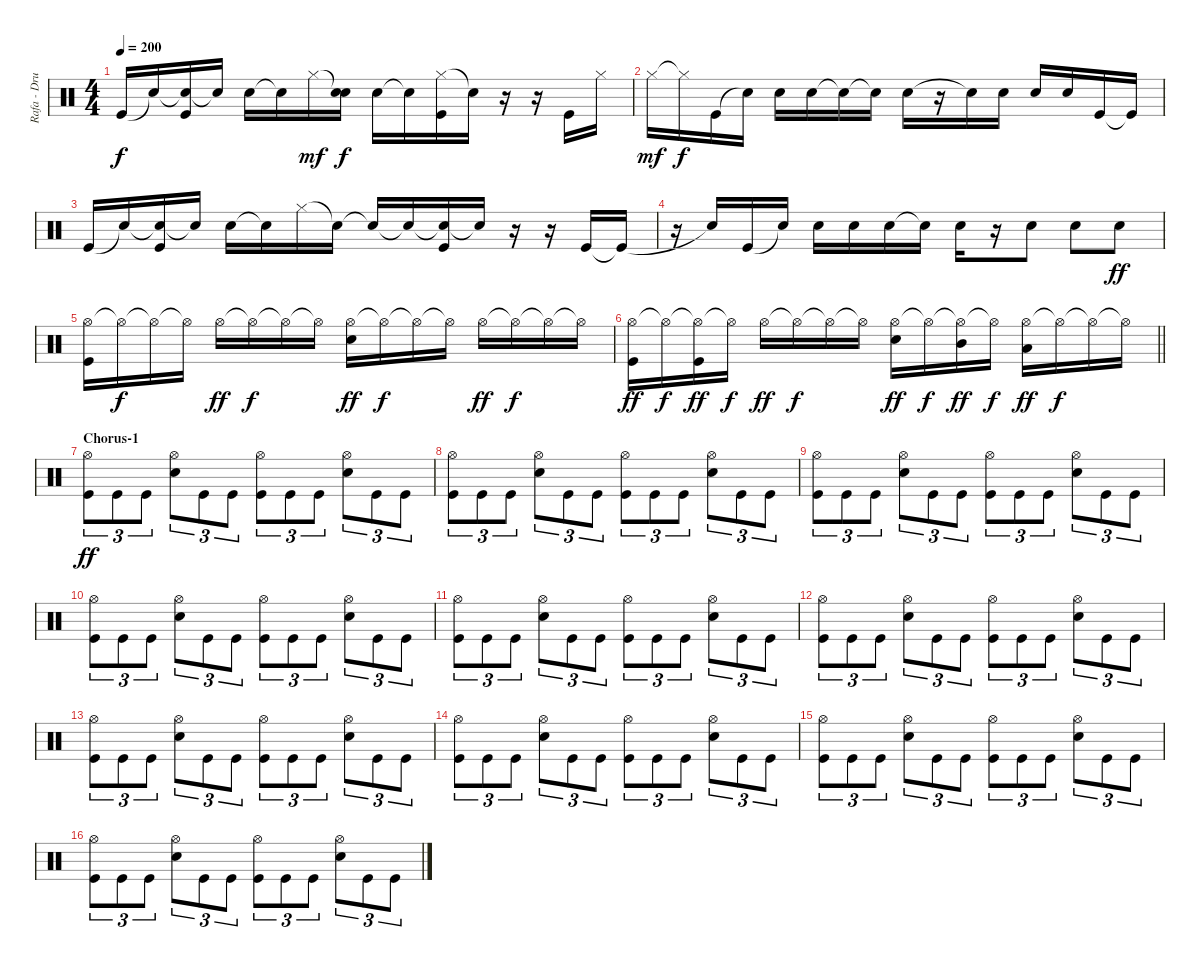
\track ("Rafa - Drums" "Rafa - Dru") {instrument percussion}
\staff {score}
\articulation defaults
\ts (4 4)
\tempo 200
\clef neutral
\ks c "Kick (hit)".16{dy f} "Snare (hit)"{t}.16
("Snare (hit)"{t} "Kick (hit)").16 "Snare (hit)"{t}.16 "Electric Snare (hit)".16 "Snare (hit)"{t}.16 "Hi-Hat (closed)".16{dy mf} ("Snare (hit)"{t} "Electric Snare (hit)").16{dy f} "Electric Snare (hit)".16 "Snare (hit)"{t}.16 ("Hi-Hat (closed)" "Kick (hit)").16 "Snare (hit)"{t}.16 r.16 r.16 "Kick (hit)".16 "Hi-Hat (closed)".16 |
"Hi-Hat (closed)".16{dy mf} "Hi-Hat (closed)"{t}.16{dy f} "Kick (hit)".16 "Snare (hit)"{t}.16 "Electric Snare (hit)".16 "Electric Snare (hit)".16 "Electric Snare (hit)"{t}.16 "Snare (hit)"{t}.16 "Electric Snare (hit)".16 r.16 "Electric Snare (hit)"{t}.16 "Electric Snare (hit)".16 "Electric Snare (hit)".16 "Electric Snare (hit)".16 "Kick (hit)".16 "Kick (hit)"{t}.16 |
"Kick (hit)".16 "Snare (hit)"{t}.16 ("Snare (hit)"{t} "Kick (hit)").16 "Snare (hit)"{t}.16 "Electric Snare (hit)".16 "Snare (hit)"{t}.16 "Hi-Hat (closed)".16 "Snare (hit)"{t}.16 "Snare (hit)"{t}.16 "Snare (hit)"{t}.16 ("Snare (hit)"{t} "Kick (hit)").16 "Snare (hit)"{t}.16 r.16 r.16 "Kick (hit)".16 "Kick (hit)"{t}.16 |
r.16 "Snare (hit)"{t}.16 "Kick (hit)".16 "Snare (hit)"{t}.16 "Electric Snare (hit)".16 "Electric Snare (hit)".16 "Electric Snare (hit)".16 "Snare (hit)"{t}.16 "Electric Snare (hit)".16 r.16 "Electric Snare (hit)".8 "Electric Snare (hit)".8 "Electric Snare (hit)".8{dy ff} |
("Hi-Hat (open)" "Kick (hit)").16 "Hi-Hat (open)"{t}.16{dy f} "Hi-Hat (open)"{t}.16 "Hi-Hat (open)"{t}.16 "Hi-Hat (open)".16{dy ff} "Hi-Hat (open)"{t}.16{dy f} "Hi-Hat (open)"{t}.16 "Hi-Hat (open)"{t}.16 ("Hi-Hat (open)" "Electric Snare (hit)").16{dy ff} "Hi-Hat (open)"{t}.16{dy f} "Hi-Hat (open)"{t}.16 "Hi-Hat (open)"{t}.16 "Hi-Hat (open)".16{dy ff} "Hi-Hat (open)"{t}.16{dy f} "Hi-Hat (open)"{t}.16 "Hi-Hat (open)"{t}.16 |
\barLineRight lightlight
("Hi-Hat (open)" "Kick (hit)").16{dy ff} "Hi-Hat (open)"{t}.16{dy f} ("Hi-Hat (open)"{t} "Kick (hit)").16{dy ff} "Hi-Hat (open)"{t}.16{dy f} "Hi-Hat (open)".16{dy ff} "Hi-Hat (open)"{t}.16{dy f} "Hi-Hat (open)"{t}.16 "Hi-Hat (open)"{t}.16 ("Hi-Hat (open)" "Electric Snare (hit)").16{dy ff} "Hi-Hat (open)"{t}.16{dy f} ("Hi-Hat (open)"{t} "Mid Tom (hit)").16{dy ff} "Hi-Hat (open)"{t}.16{dy f} ("Hi-Hat (open)" "Low Floor Tom (hit)").16{dy ff} "Hi-Hat (open)"{t}.16{dy f} "Hi-Hat (open)"{t}.16 "Hi-Hat (open)"{t}.16 |
\section ("" "Chorus-1")
("Hi-Hat (open)" "Kick (hit)").8{tu (3 2) dy ff} "Kick (hit)".8{tu (3 2)} "Kick (hit)".8{tu (3 2)} ("Hi-Hat (open)" "Electric Snare (hit)").8{tu (3 2)} "Kick (hit)".8{tu (3 2)} "Kick (hit)".8{tu (3 2)} ("Hi-Hat (open)" "Kick (hit)").8{tu (3 2)} "Kick (hit)".8{tu (3 2)} "Kick (hit)".8{tu (3 2)} ("Hi-Hat (open)" "Electric Snare (hit)").8{tu (3 2)} "Kick (hit)".8{tu (3 2)} "Kick (hit)".8{tu (3 2)} |
("Hi-Hat (open)" "Kick (hit)").8{tu (3 2)} "Kick (hit)".8{tu (3 2)} "Kick (hit)".8{tu (3 2)} ("Hi-Hat (open)" "Electric Snare (hit)").8{tu (3 2)} "Kick (hit)".8{tu (3 2)} "Kick (hit)".8{tu (3 2)} ("Hi-Hat (open)" "Kick (hit)").8{tu (3 2)} "Kick (hit)".8{tu (3 2)} "Kick (hit)".8{tu (3 2)} ("Hi-Hat (open)" "Electric Snare (hit)").8{tu (3 2)} "Kick (hit)".8{tu (3 2)} "Kick (hit)".8{tu (3 2)} |
("Hi-Hat (open)" "Kick (hit)").8{tu (3 2)} "Kick (hit)".8{tu (3 2)} "Kick (hit)".8{tu (3 2)} ("Hi-Hat (open)" "Electric Snare (hit)").8{tu (3 2)} "Kick (hit)".8{tu (3 2)} "Kick (hit)".8{tu (3 2)} ("Hi-Hat (open)" "Kick (hit)").8{tu (3 2)} "Kick (hit)".8{tu (3 2)} "Kick (hit)".8{tu (3 2)} ("Hi-Hat (open)" "Electric Snare (hit)").8{tu (3 2)} "Kick (hit)".8{tu (3 2)} "Kick (hit)".8{tu (3 2)} |
("Hi-Hat (open)" "Kick (hit)").8{tu (3 2)} "Kick (hit)".8{tu (3 2)} "Kick (hit)".8{tu (3 2)} ("Hi-Hat (open)" "Electric Snare (hit)").8{tu (3 2)} "Kick (hit)".8{tu (3 2)} "Kick (hit)".8{tu (3 2)} ("Hi-Hat (open)" "Kick (hit)").8{tu (3 2)} "Kick (hit)".8{tu (3 2)} "Kick (hit)".8{tu (3 2)} ("Hi-Hat (open)" "Electric Snare (hit)").8{tu (3 2)} "Kick (hit)".8{tu (3 2)} "Kick (hit)".8{tu (3 2)} |
("Hi-Hat (open)" "Kick (hit)").8{tu (3 2)} "Kick (hit)".8{tu (3 2)} "Kick (hit)".8{tu (3 2)} ("Hi-Hat (open)" "Electric Snare (hit)").8{tu (3 2)} "Kick (hit)".8{tu (3 2)} "Kick (hit)".8{tu (3 2)} ("Hi-Hat (open)" "Kick (hit)").8{tu (3 2)} "Kick (hit)".8{tu (3 2)} "Kick (hit)".8{tu (3 2)} ("Hi-Hat (open)" "Electric Snare (hit)").8{tu (3 2)} "Kick (hit)".8{tu (3 2)} "Kick (hit)".8{tu (3 2)} |
("Hi-Hat (open)" "Kick (hit)").8{tu (3 2)} "Kick (hit)".8{tu (3 2)} "Kick (hit)".8{tu (3 2)} ("Hi-Hat (open)" "Electric Snare (hit)").8{tu (3 2)} "Kick (hit)".8{tu (3 2)} "Kick (hit)".8{tu (3 2)} ("Hi-Hat (open)" "Kick (hit)").8{tu (3 2)} "Kick (hit)".8{tu (3 2)} "Kick (hit)".8{tu (3 2)} ("Hi-Hat (open)" "Electric Snare (hit)").8{tu (3 2)} "Kick (hit)".8{tu (3 2)} "Kick (hit)".8{tu (3 2)} |
("Hi-Hat (open)" "Kick (hit)").8{tu (3 2)} "Kick (hit)".8{tu (3 2)} "Kick (hit)".8{tu (3 2)} ("Hi-Hat (open)" "Electric Snare (hit)").8{tu (3 2)} "Kick (hit)".8{tu (3 2)} "Kick (hit)".8{tu (3 2)} ("Hi-Hat (open)" "Kick (hit)").8{tu (3 2)} "Kick (hit)".8{tu (3 2)} "Kick (hit)".8{tu (3 2)} ("Hi-Hat (open)" "Electric Snare (hit)").8{tu (3 2)} "Kick (hit)".8{tu (3 2)} "Kick (hit)".8{tu (3 2)} |
("Hi-Hat (open)" "Kick (hit)").8{tu (3 2)} "Kick (hit)".8{tu (3 2)} "Kick (hit)".8{tu (3 2)} ("Hi-Hat (open)" "Electric Snare (hit)").8{tu (3 2)} "Kick (hit)".8{tu (3 2)} "Kick (hit)".8{tu (3 2)} ("Hi-Hat (open)" "Kick (hit)").8{tu (3 2)} "Kick (hit)".8{tu (3 2)} "Kick (hit)".8{tu (3 2)} ("Hi-Hat (open)" "Electric Snare (hit)").8{tu (3 2)} "Kick (hit)".8{tu (3 2)} "Kick (hit)".8{tu (3 2)} |
("Hi-Hat (open)" "Kick (hit)").8{tu (3 2)} "Kick (hit)".8{tu (3 2)} "Kick (hit)".8{tu (3 2)} ("Hi-Hat (open)" "Electric Snare (hit)").8{tu (3 2)} "Kick (hit)".8{tu (3 2)} "Kick (hit)".8{tu (3 2)} ("Hi-Hat (open)" "Kick (hit)").8{tu (3 2)} "Kick (hit)".8{tu (3 2)} "Kick (hit)".8{tu (3 2)} ("Hi-Hat (open)" "Electric Snare (hit)").8{tu (3 2)} "Kick (hit)".8{tu (3 2)} "Kick (hit)".8{tu (3 2)} |
("Hi-Hat (open)" "Kick (hit)").8{tu (3 2)} "Kick (hit)".8{tu (3 2)} "Kick (hit)".8{tu (3 2)} ("Hi-Hat (open)" "Electric Snare (hit)").8{tu (3 2)} "Kick (hit)".8{tu (3 2)} "Kick (hit)".8{tu (3 2)} ("Hi-Hat (open)" "Kick (hit)").8{tu (3 2)} "Kick (hit)".8{tu (3 2)} "Kick (hit)".8{tu (3 2)} ("Hi-Hat (open)" "Electric Snare (hit)").8{tu (3 2)} "Kick (hit)".8{tu (3 2)} "Kick (hit)".8{tu (3 2)}
